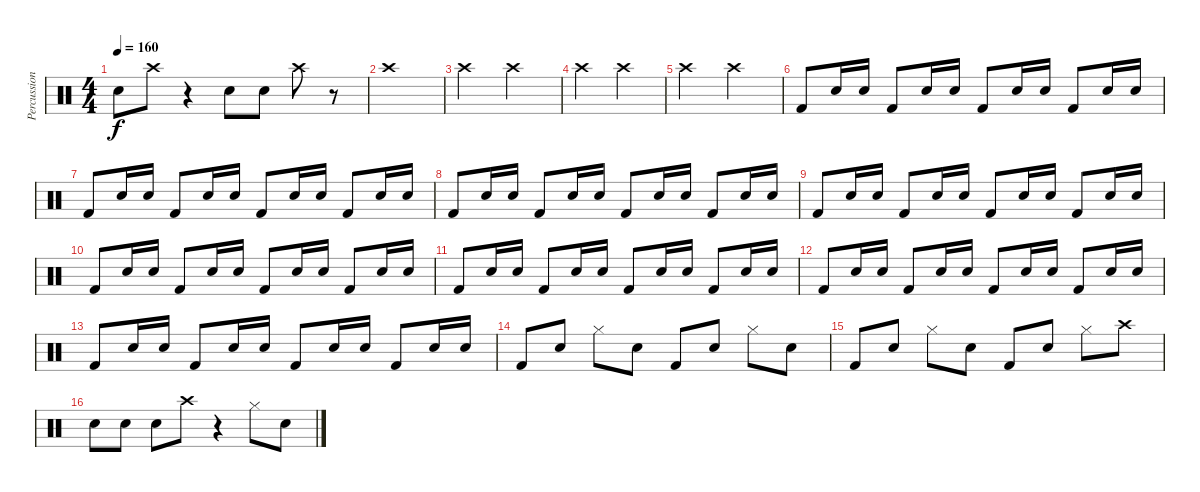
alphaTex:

\track ("Percussion" "Percussion") {instrument percussion}
\staff {score}
\articulation defaults
\ts (4 4)
\tempo 160
\clef neutral
\ks c "Electric Snare (hit)".8{dy f} "Crash high (hit)".8
r.4 "Electric Snare (hit)".8 "Electric Snare (hit)".8 "Crash high (hit)".8 r.8 |
"Crash high (hit)".1 |
"Crash high (hit)".2 "Crash high (hit)".2 |
"Crash high (hit)".4 "Crash high (hit)".4 |
"Crash high (hit)".2 "Crash high (hit)".2 |
"Kick (hit) 2".8 "Electric Snare (hit)".16 "Electric Snare (hit)".16 "Kick (hit) 2".8 "Electric Snare (hit)".16 "Electric Snare (hit)".16 "Kick (hit) 2".8 "Electric Snare (hit)".16 "Electric Snare (hit)".16 "Kick (hit) 2".8 "Electric Snare (hit)".16 "Electric Snare (hit)".16 |
"Kick (hit) 2".8 "Electric Snare (hit)".16 "Electric Snare (hit)".16 "Kick (hit) 2".8 "Electric Snare (hit)".16 "Electric Snare (hit)".16 "Kick (hit) 2".8 "Electric Snare (hit)".16 "Electric Snare (hit)".16 "Kick (hit) 2".8 "Electric Snare (hit)".16 "Electric Snare (hit)".16 |
"Kick (hit) 2".8 "Electric Snare (hit)".16 "Electric Snare (hit)".16 "Kick (hit) 2".8 "Electric Snare (hit)".16 "Electric Snare (hit)".16 "Kick (hit) 2".8 "Electric Snare (hit)".16 "Electric Snare (hit)".16 "Kick (hit) 2".8 "Electric Snare (hit)".16 "Electric Snare (hit)".16 |
"Kick (hit) 2".8 "Electric Snare (hit)".16 "Electric Snare (hit)".16 "Kick (hit) 2".8 "Electric Snare (hit)".16 "Electric Snare (hit)".16 "Kick (hit) 2".8 "Electric Snare (hit)".16 "Electric Snare (hit)".16 "Kick (hit) 2".8 "Electric Snare (hit)".16 "Electric Snare (hit)".16 |
"Kick (hit) 2".8 "Electric Snare (hit)".16 "Electric Snare (hit)".16 "Kick (hit) 2".8 "Electric Snare (hit)".16 "Electric Snare (hit)".16 "Kick (hit) 2".8 "Electric Snare (hit)".16 "Electric Snare (hit)".16 "Kick (hit) 2".8 "Electric Snare (hit)".16 "Electric Snare (hit)".16 |
"Kick (hit) 2".8 "Electric Snare (hit)".16 "Electric Snare (hit)".16 "Kick (hit) 2".8 "Electric Snare (hit)".16 "Electric Snare (hit)".16 "Kick (hit) 2".8 "Electric Snare (hit)".16 "Electric Snare (hit)".16 "Kick (hit) 2".8 "Electric Snare (hit)".16 "Electric Snare (hit)".16 |
"Kick (hit) 2".8 "Electric Snare (hit)".16 "Electric Snare (hit)".16 "Kick (hit) 2".8 "Electric Snare (hit)".16 "Electric Snare (hit)".16 "Kick (hit) 2".8 "Electric Snare (hit)".16 "Electric Snare (hit)".16 "Kick (hit) 2".8 "Electric Snare (hit)".16 "Electric Snare (hit)".16 |
"Kick (hit) 2".8 "Electric Snare (hit)".16 "Electric Snare (hit)".16 "Kick (hit) 2".8 "Electric Snare (hit)".16 "Electric Snare (hit)".16 "Kick (hit) 2".8 "Electric Snare (hit)".16 "Electric Snare (hit)".16 "Kick (hit) 2".8 "Electric Snare (hit)".16 "Electric Snare (hit)".16 |
"Kick (hit) 2".8 "Electric Snare (hit)".8 "Hi-Hat (closed)".8 "Electric Snare (hit)".8 "Kick (hit) 2".8 "Electric Snare (hit)".8 "Hi-Hat (closed)".8 "Electric Snare (hit)".8 |
"Kick (hit) 2".8 "Electric Snare (hit)".8 "Hi-Hat (closed)".8 "Electric Snare (hit)".8 "Kick (hit) 2".8 "Electric Snare (hit)".8 "Hi-Hat (closed)".8 "Crash high (hit)".8 |
"Electric Snare (hit)".8 "Electric Snare (hit)".8 "Electric Snare (hit)".8 "Crash high (hit)".8 r.4 "Hi-Hat (closed)".8 "Electric Snare (hit)".8
